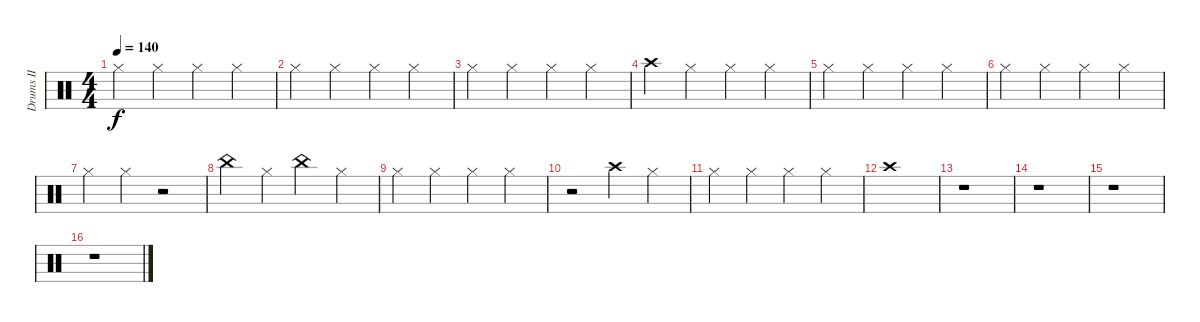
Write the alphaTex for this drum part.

\track ("Drums II" "Drums II") {instrument percussion}
\staff {score}
\articulation defaults
\ts (4 4)
\tempo 140
\clef neutral
\ks c "Hi-Hat (closed)".4{dy f} "Hi-Hat (closed)".4 "Hi-Hat (closed)".4 "Hi-Hat (closed)".4
|
"Hi-Hat (closed)".4 "Hi-Hat (closed)".4 "Hi-Hat (closed)".4 "Hi-Hat (closed)".4 |
"Hi-Hat (closed)".4 "Hi-Hat (closed)".4 "Hi-Hat (closed)".4 "Hi-Hat (closed)".4 |
"Crash high (hit)".4 "Hi-Hat (closed)".4 "Hi-Hat (closed)".4 "Hi-Hat (closed)".4 |
"Hi-Hat (closed)".4 "Hi-Hat (closed)".4 "Hi-Hat (closed)".4 "Hi-Hat (closed)".4 |
"Hi-Hat (closed)".4 "Hi-Hat (closed)".4 "Hi-Hat (closed)".4 "Hi-Hat (closed)".4 |
"Hi-Hat (closed)".4 "Hi-Hat (closed)".4 r.2 |
"China (hit)".4 "Hi-Hat (closed)".4 "China (hit)".4 "Hi-Hat (closed)".4 |
"Hi-Hat (closed)".4 "Hi-Hat (closed)".4 "Hi-Hat (closed)".4 "Hi-Hat (closed)".4 |
r.2 "Crash high (hit)".4 "Hi-Hat (closed)".4 |
"Hi-Hat (closed)".4 "Hi-Hat (closed)".4 "Hi-Hat (closed)".4 "Hi-Hat (closed)".4 |
"Crash high (hit)".1 |
r.1 |
r.1 |
r.1 |
r.1
